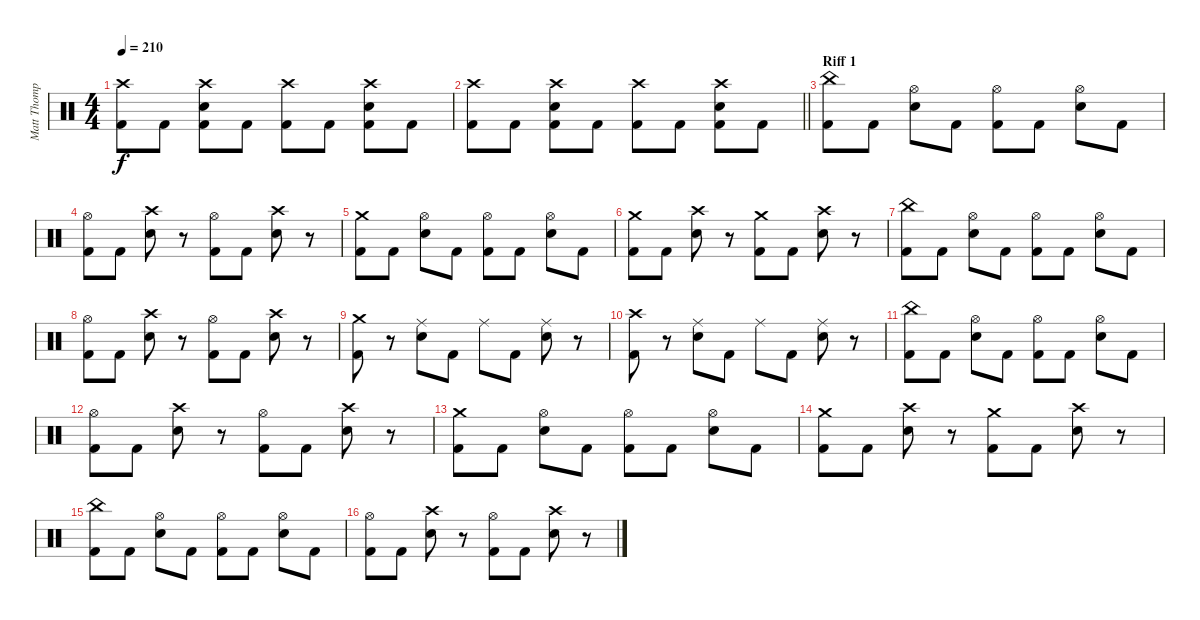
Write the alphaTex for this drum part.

\track ("Matt Thompson" "Matt Thomp") {instrument percussion}
\staff {score}
\articulation defaults
\ts (4 4)
\tempo 210
\clef neutral
\ks c
("Crash high (hit)" "Kick (hit) 2").8{dy f} "Kick (hit) 2".8 ("Crash high (hit)" "Electric Snare (hit)" "Kick (hit) 2").8 "Kick (hit) 2".8 ("Crash high (hit)" "Kick (hit) 2").8 "Kick (hit) 2".8 ("Crash high (hit)" "Electric Snare (hit)" "Kick (hit) 2").8 "Kick (hit) 2".8 |
\barLineRight lightlight
("Crash high (hit)" "Kick (hit) 2").8 "Kick (hit) 2".8 ("Crash high (hit)" "Electric Snare (hit)" "Kick (hit) 2").8 "Kick (hit) 2".8 ("Crash high (hit)" "Kick (hit) 2").8 "Kick (hit) 2".8 ("Crash high (hit)" "Electric Snare (hit)" "Kick (hit) 2").8 "Kick (hit) 2".8 |
\section ("" "Riff 1")
("China (hit)" "Kick (hit) 2").8 "Kick (hit) 2".8 ("Hi-Hat (open)" "Electric Snare (hit)").8 "Kick (hit) 2".8 ("Hi-Hat (open)" "Kick (hit) 2").8 "Kick (hit) 2".8 ("Hi-Hat (open)" "Electric Snare (hit)").8 "Kick (hit) 2".8 |
("Hi-Hat (open)" "Kick (hit) 2").8 "Kick (hit) 2".8 ("Crash high (hit)" "Electric Snare (hit)").8 r.8 ("Hi-Hat (open)" "Kick (hit) 2").8 "Kick (hit) 2".8 ("Crash high (hit)" "Electric Snare (hit)").8 r.8 |
("Crash medium (hit)" "Kick (hit) 2").8 "Kick (hit) 2".8 ("Hi-Hat (open)" "Electric Snare (hit)").8 "Kick (hit) 2".8 ("Hi-Hat (open)" "Kick (hit) 2").8 "Kick (hit) 2".8 ("Hi-Hat (open)" "Electric Snare (hit)").8 "Kick (hit) 2".8 |
("Crash medium (hit)" "Kick (hit) 2").8 "Kick (hit) 2".8 ("Crash high (hit)" "Electric Snare (hit)").8 r.8 ("Crash medium (hit)" "Kick (hit) 2").8 "Kick (hit) 2".8 ("Crash high (hit)" "Electric Snare (hit)").8 r.8 |
("China (hit)" "Kick (hit) 2").8 "Kick (hit) 2".8 ("Hi-Hat (open)" "Electric Snare (hit)").8 "Kick (hit) 2".8 ("Hi-Hat (open)" "Kick (hit) 2").8 "Kick (hit) 2".8 ("Hi-Hat (open)" "Electric Snare (hit)").8 "Kick (hit) 2".8 |
("Hi-Hat (open)" "Kick (hit) 2").8 "Kick (hit) 2".8 ("Crash high (hit)" "Electric Snare (hit)").8 r.8 ("Hi-Hat (open)" "Kick (hit) 2").8 "Kick (hit) 2".8 ("Crash high (hit)" "Electric Snare (hit)").8 r.8 |
("Crash medium (hit)" "Kick (hit) 2").8 r.8 ("Ride (middle)" "Electric Snare (hit)").8 "Kick (hit) 2".8 "Ride (middle)".8 "Kick (hit) 2".8 ("Ride (middle)" "Electric Snare (hit)").8 r.8 |
("Crash high (hit)" "Kick (hit) 2").8 r.8 ("Ride (middle)" "Electric Snare (hit)").8 "Kick (hit) 2".8 "Ride (middle)".8 "Kick (hit) 2".8 ("Ride (middle)" "Electric Snare (hit)").8 r.8 |
("China (hit)" "Kick (hit) 2").8 "Kick (hit) 2".8 ("Hi-Hat (open)" "Electric Snare (hit)").8 "Kick (hit) 2".8 ("Hi-Hat (open)" "Kick (hit) 2").8 "Kick (hit) 2".8 ("Hi-Hat (open)" "Electric Snare (hit)").8 "Kick (hit) 2".8 |
("Hi-Hat (open)" "Kick (hit) 2").8 "Kick (hit) 2".8 ("Crash high (hit)" "Electric Snare (hit)").8 r.8 ("Hi-Hat (open)" "Kick (hit) 2").8 "Kick (hit) 2".8 ("Crash high (hit)" "Electric Snare (hit)").8 r.8 |
("Crash medium (hit)" "Kick (hit) 2").8 "Kick (hit) 2".8 ("Hi-Hat (open)" "Electric Snare (hit)").8 "Kick (hit) 2".8 ("Hi-Hat (open)" "Kick (hit) 2").8 "Kick (hit) 2".8 ("Hi-Hat (open)" "Electric Snare (hit)").8 "Kick (hit) 2".8 |
("Crash medium (hit)" "Kick (hit) 2").8 "Kick (hit) 2".8 ("Crash high (hit)" "Electric Snare (hit)").8 r.8 ("Crash medium (hit)" "Kick (hit) 2").8 "Kick (hit) 2".8 ("Crash high (hit)" "Electric Snare (hit)").8 r.8 |
("China (hit)" "Kick (hit) 2").8 "Kick (hit) 2".8 ("Hi-Hat (open)" "Electric Snare (hit)").8 "Kick (hit) 2".8 ("Hi-Hat (open)" "Kick (hit) 2").8 "Kick (hit) 2".8 ("Hi-Hat (open)" "Electric Snare (hit)").8 "Kick (hit) 2".8 |
("Hi-Hat (open)" "Kick (hit) 2").8 "Kick (hit) 2".8 ("Crash high (hit)" "Electric Snare (hit)").8 r.8 ("Hi-Hat (open)" "Kick (hit) 2").8 "Kick (hit) 2".8 ("Crash high (hit)" "Electric Snare (hit)").8 r.8
